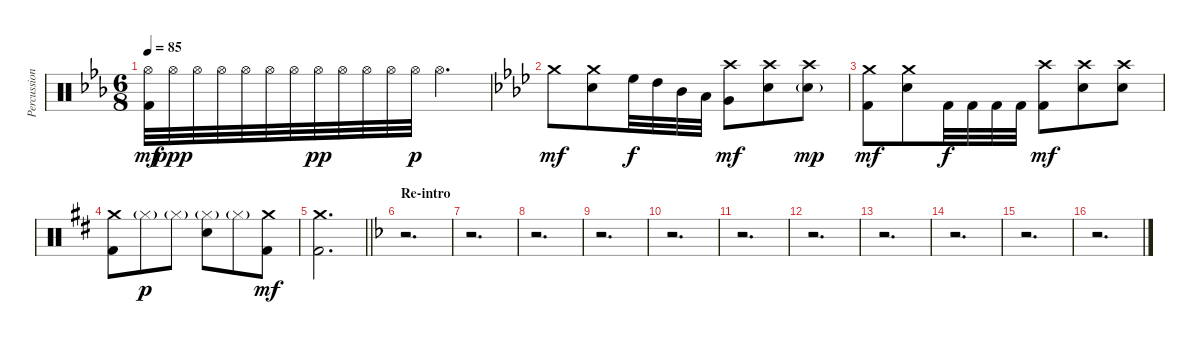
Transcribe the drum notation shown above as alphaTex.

\track ("Percussion (Daniele Carbonera)" "Percussion") {instrument percussion}
\staff {score}
\articulation defaults
\ts (6 8)
\tempo 85
\clef neutral
\ks cminor
("Hi-Hat (open)" "Kick (hit) 2").32{dy mf} "Hi-Hat (open)".32{dy ppp} "Hi-Hat (open)".32 "Hi-Hat (open)".32 "Hi-Hat (open)".32 "Hi-Hat (open)".32 "Hi-Hat (open)".32 "Hi-Hat (open)".32{dy pp} "Hi-Hat (open)".32 "Hi-Hat (open)".32 "Hi-Hat (open)".32 "Hi-Hat (open)".32{dy p} "Hi-Hat (open)".4{d} |
\ks fminor "Crash medium (hit)".8{dy mf}
("Crash medium (hit)" "Electric Snare (hit)").8 "High Floor Tom (hit)".32{dy f} "High Tom (hit)".32 "Mid Tom (hit)".32 "Low Tom (hit)".32 ("Crash high (hit)" "Very Low Tom (hit)").8{dy mf} ("Crash high (hit)" "Electric Snare (hit)").8 ("Crash high (hit)" "Electric Snare (hit)"{g}).8{dy mp} |
("Crash medium (hit)" "Kick (hit) 2").8{dy mf} ("Crash medium (hit)" "Electric Snare (hit)").8 "Kick (hit) 2".32{dy f} "Kick (hit) 2".32 "Kick (hit) 2".32 "Kick (hit) 2".32 ("Crash high (hit)" "Kick (hit) 2").8{dy mf} ("Crash high (hit)" "Electric Snare (hit)").8 ("Crash high (hit)" "Electric Snare (hit)").8 |
\ks d
("Crash medium (hit)" "Kick (hit) 2").8 "Hi-Hat (closed)"{g}.8{dy p} "Hi-Hat (closed)"{g}.8 ("Hi-Hat (closed)"{g} "Electric Snare (hit)").8 "Hi-Hat (closed)"{g}.8 ("Crash medium (hit)" "Kick (hit) 2").8{dy mf} |
\barLineRight lightlight
("Crash medium (hit)" "Kick (hit) 2").2{d} |
\section ("" "Re-intro")
\ks dminor
r.2{d} |
r.2{d} |
r.2{d} |
r.2{d} |
r.2{d} |
r.2{d} |
r.2{d} |
r.2{d} |
r.2{d} |
r.2{d} |
r.2{d}
